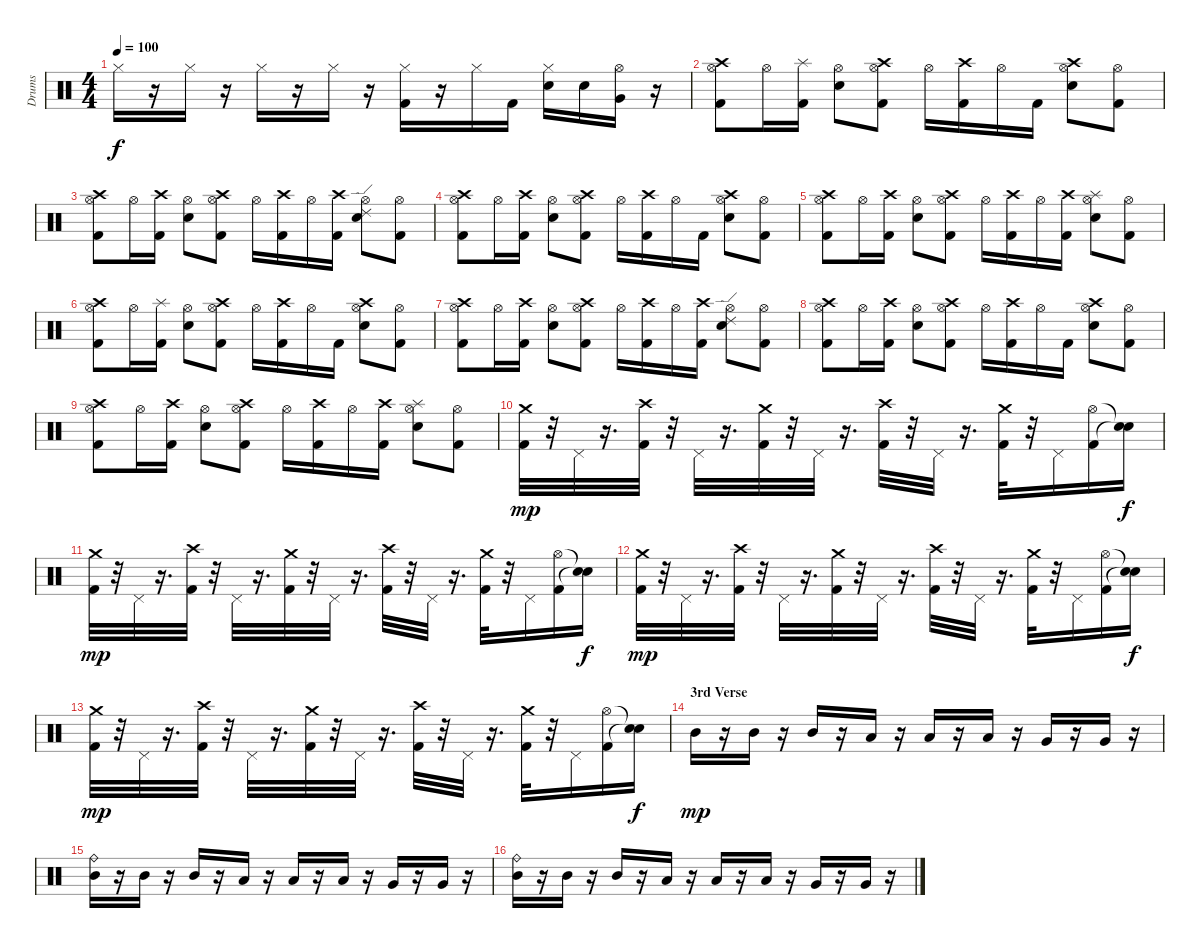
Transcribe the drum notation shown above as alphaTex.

\track ("Drums" "Drums") {instrument percussion}
\staff {score}
\articulation defaults
\ts (4 4)
\tempo 100
\clef neutral
\ks c "Hi-Hat (closed)".16{dy f}
r.16 "Hi-Hat (closed)".16 r.16 "Hi-Hat (closed)".16 r.16 "Hi-Hat (closed)".16 r.16 ("Hi-Hat (closed)" "Kick (hit) 2").16 r.16 "Hi-Hat (closed)".16 "Kick (hit) 2".16 ("Hi-Hat (closed)" "Electric Snare (hit)").16 "Electric Snare (hit)".16 ("Hi-Hat (open)" "Very Low Tom (hit)").16 r.16 |
("Hi-Hat (open)" "Crash high (hit)" "Kick (hit) 2").8 "Hi-Hat (open)".16 ("Splash (hit)" "Kick (hit) 2").16 ("Hi-Hat (open)" "Electric Snare (hit)").8 ("Hi-Hat (open)" "Crash high (hit)" "Kick (hit) 2").8 "Hi-Hat (open)".16 ("Crash high (hit)" "Kick (hit) 2").16 "Hi-Hat (open)".16 "Kick (hit) 2".16 ("Hi-Hat (open)" "Crash high (hit)" "Electric Snare (hit)").8 ("Hi-Hat (open)" "Kick (hit) 2").8 |
("Hi-Hat (open)" "Crash high (hit)" "Kick (hit) 2").8 "Hi-Hat (open)".16 ("Crash high (hit)" "Kick (hit) 2").16 ("Hi-Hat (open)" "Electric Snare (hit)").8 ("Hi-Hat (open)" "Crash high (hit)" "Kick (hit) 2").8 "Hi-Hat (open)".16 ("Crash high (hit)" "Kick (hit) 2").16 "Hi-Hat (open)".16 ("Crash high (hit)" "Kick (hit) 2").16 ("Hi-Hat (open)" "Ride (edge) 2" "Electric Snare (hit)").8 ("Hi-Hat (open)" "Kick (hit) 2").8 |
("Hi-Hat (open)" "Crash high (hit)" "Kick (hit) 2").8 "Hi-Hat (open)".16 ("Crash high (hit)" "Kick (hit) 2").16 ("Hi-Hat (open)" "Electric Snare (hit)").8 ("Hi-Hat (open)" "Crash high (hit)" "Kick (hit) 2").8 "Hi-Hat (open)".16 ("Crash high (hit)" "Kick (hit) 2").16 "Hi-Hat (open)".16 "Kick (hit) 2".16 ("Hi-Hat (open)" "Crash high (hit)" "Electric Snare (hit)").8 ("Hi-Hat (open)" "Kick (hit) 2").8 |
("Hi-Hat (open)" "Crash high (hit)" "Kick (hit) 2").8 "Hi-Hat (open)".16 ("Crash high (hit)" "Kick (hit) 2").16 ("Hi-Hat (open)" "Electric Snare (hit)").8 ("Hi-Hat (open)" "Crash high (hit)" "Kick (hit) 2").8 "Hi-Hat (open)".16 ("Crash high (hit)" "Kick (hit) 2").16 "Hi-Hat (open)".16 ("Crash high (hit)" "Kick (hit) 2").16 ("Hi-Hat (open)" "Splash (hit)" "Electric Snare (hit)").8 ("Hi-Hat (open)" "Kick (hit) 2").8 |
("Hi-Hat (open)" "Crash high (hit)" "Kick (hit) 2").8 "Hi-Hat (open)".16 ("Splash (hit)" "Kick (hit) 2").16 ("Hi-Hat (open)" "Electric Snare (hit)").8 ("Hi-Hat (open)" "Crash high (hit)" "Kick (hit) 2").8 "Hi-Hat (open)".16 ("Crash high (hit)" "Kick (hit) 2").16 "Hi-Hat (open)".16 "Kick (hit) 2".16 ("Hi-Hat (open)" "Crash high (hit)" "Electric Snare (hit)").8 ("Hi-Hat (open)" "Kick (hit) 2").8 |
("Hi-Hat (open)" "Crash high (hit)" "Kick (hit) 2").8 "Hi-Hat (open)".16 ("Crash high (hit)" "Kick (hit) 2").16 ("Hi-Hat (open)" "Electric Snare (hit)").8 ("Hi-Hat (open)" "Crash high (hit)" "Kick (hit) 2").8 "Hi-Hat (open)".16 ("Crash high (hit)" "Kick (hit) 2").16 "Hi-Hat (open)".16 ("Crash high (hit)" "Kick (hit) 2").16 ("Hi-Hat (open)" "Ride (edge) 2" "Electric Snare (hit)").8 ("Hi-Hat (open)" "Kick (hit) 2").8 |
("Hi-Hat (open)" "Crash high (hit)" "Kick (hit) 2").8 "Hi-Hat (open)".16 ("Crash high (hit)" "Kick (hit) 2").16 ("Hi-Hat (open)" "Electric Snare (hit)").8 ("Hi-Hat (open)" "Crash high (hit)" "Kick (hit) 2").8 "Hi-Hat (open)".16 ("Crash high (hit)" "Kick (hit) 2").16 "Hi-Hat (open)".16 "Kick (hit) 2".16 ("Hi-Hat (open)" "Crash high (hit)" "Electric Snare (hit)").8 ("Hi-Hat (open)" "Kick (hit) 2").8 |
("Hi-Hat (open)" "Crash high (hit)" "Kick (hit) 2").8 "Hi-Hat (open)".16 ("Crash high (hit)" "Kick (hit) 2").16 ("Hi-Hat (open)" "Electric Snare (hit)").8 ("Hi-Hat (open)" "Crash high (hit)" "Kick (hit) 2").8 "Hi-Hat (open)".16 ("Crash high (hit)" "Kick (hit) 2").16 "Hi-Hat (open)".16 ("Crash high (hit)" "Kick (hit) 2").16 ("Hi-Hat (open)" "Splash (hit)" "Electric Snare (hit)").8 ("Hi-Hat (open)" "Kick (hit) 2").8 |
("Crash medium (hit)" "Kick (hit) 2").32{dy mp} r.32 "Pedal Hi-Hat (hit)".32 r.16{d} ("Crash high (hit)" "Kick (hit) 2").32 r.32 "Pedal Hi-Hat (hit)".32 r.16{d} ("Crash medium (hit)" "Kick (hit) 2").32 r.32 "Pedal Hi-Hat (hit)".32 r.16{d} ("Crash high (hit)" "Kick (hit) 2").32 r.32 "Pedal Hi-Hat (hit)".32 r.16{d} ("Crash medium (hit)" "Kick (hit) 2").32 r.32 "Pedal Hi-Hat (hit)".16 ("Hi-Hat (open)" "Kick (hit) 2").16 ("Snare (hit)"{t} "Snare (hit)"{t}).16{dy f} |
("Crash medium (hit)" "Kick (hit) 2").32{dy mp} r.32 "Pedal Hi-Hat (hit)".32 r.16{d} ("Crash high (hit)" "Kick (hit) 2").32 r.32 "Pedal Hi-Hat (hit)".32 r.16{d} ("Crash medium (hit)" "Kick (hit) 2").32 r.32 "Pedal Hi-Hat (hit)".32 r.16{d} ("Crash high (hit)" "Kick (hit) 2").32 r.32 "Pedal Hi-Hat (hit)".32 r.16{d} ("Crash medium (hit)" "Kick (hit) 2").32 r.32 "Pedal Hi-Hat (hit)".16 ("Hi-Hat (open)" "Kick (hit) 2").16 ("Snare (hit)"{t} "Snare (hit)"{t}).16{dy f} |
("Crash medium (hit)" "Kick (hit) 2").32{dy mp} r.32 "Pedal Hi-Hat (hit)".32 r.16{d} ("Crash high (hit)" "Kick (hit) 2").32 r.32 "Pedal Hi-Hat (hit)".32 r.16{d} ("Crash medium (hit)" "Kick (hit) 2").32 r.32 "Pedal Hi-Hat (hit)".32 r.16{d} ("Crash high (hit)" "Kick (hit) 2").32 r.32 "Pedal Hi-Hat (hit)".32 r.16{d} ("Crash medium (hit)" "Kick (hit) 2").32 r.32 "Pedal Hi-Hat (hit)".16 ("Hi-Hat (open)" "Kick (hit) 2").16 ("Snare (hit)"{t} "Snare (hit)"{t}).16{dy f} |
("Crash medium (hit)" "Kick (hit) 2").32{dy mp} r.32 "Pedal Hi-Hat (hit)".32 r.16{d} ("Crash high (hit)" "Kick (hit) 2").32 r.32 "Pedal Hi-Hat (hit)".32 r.16{d} ("Crash medium (hit)" "Kick (hit) 2").32 r.32 "Pedal Hi-Hat (hit)".32 r.16{d} ("Crash high (hit)" "Kick (hit) 2").32 r.32 "Pedal Hi-Hat (hit)".32 r.16{d} ("Crash medium (hit)" "Kick (hit) 2").32 r.32 "Pedal Hi-Hat (hit)".16 ("Hi-Hat (open)" "Kick (hit) 2").16 ("Snare (hit)"{t} "Snare (hit)"{t}).16{dy f} |
\section ("" "3rd Verse")
"Mid Tom (hit)".16{dy mp} r.16 "Mid Tom (hit)".16 r.16 "Mid Tom (hit)".16 r.16 "Low Tom (hit)".16 r.16 "Low Tom (hit)".16 r.16 "Low Tom (hit)".16 r.16 "Very Low Tom (hit)".16 r.16 "Very Low Tom (hit)".16 r.16 |
("Mid Tom (hit)" "Ride (bell)").16 r.16 "Mid Tom (hit)".16 r.16 "Mid Tom (hit)".16 r.16 "Low Tom (hit)".16 r.16 "Low Tom (hit)".16 r.16 "Low Tom (hit)".16 r.16 "Very Low Tom (hit)".16 r.16 "Very Low Tom (hit)".16 r.16 |
("Mid Tom (hit)" "Ride (bell)").16 r.16 "Mid Tom (hit)".16 r.16 "Mid Tom (hit)".16 r.16 "Low Tom (hit)".16 r.16 "Low Tom (hit)".16 r.16 "Low Tom (hit)".16 r.16 "Very Low Tom (hit)".16 r.16 "Very Low Tom (hit)".16 r.16
